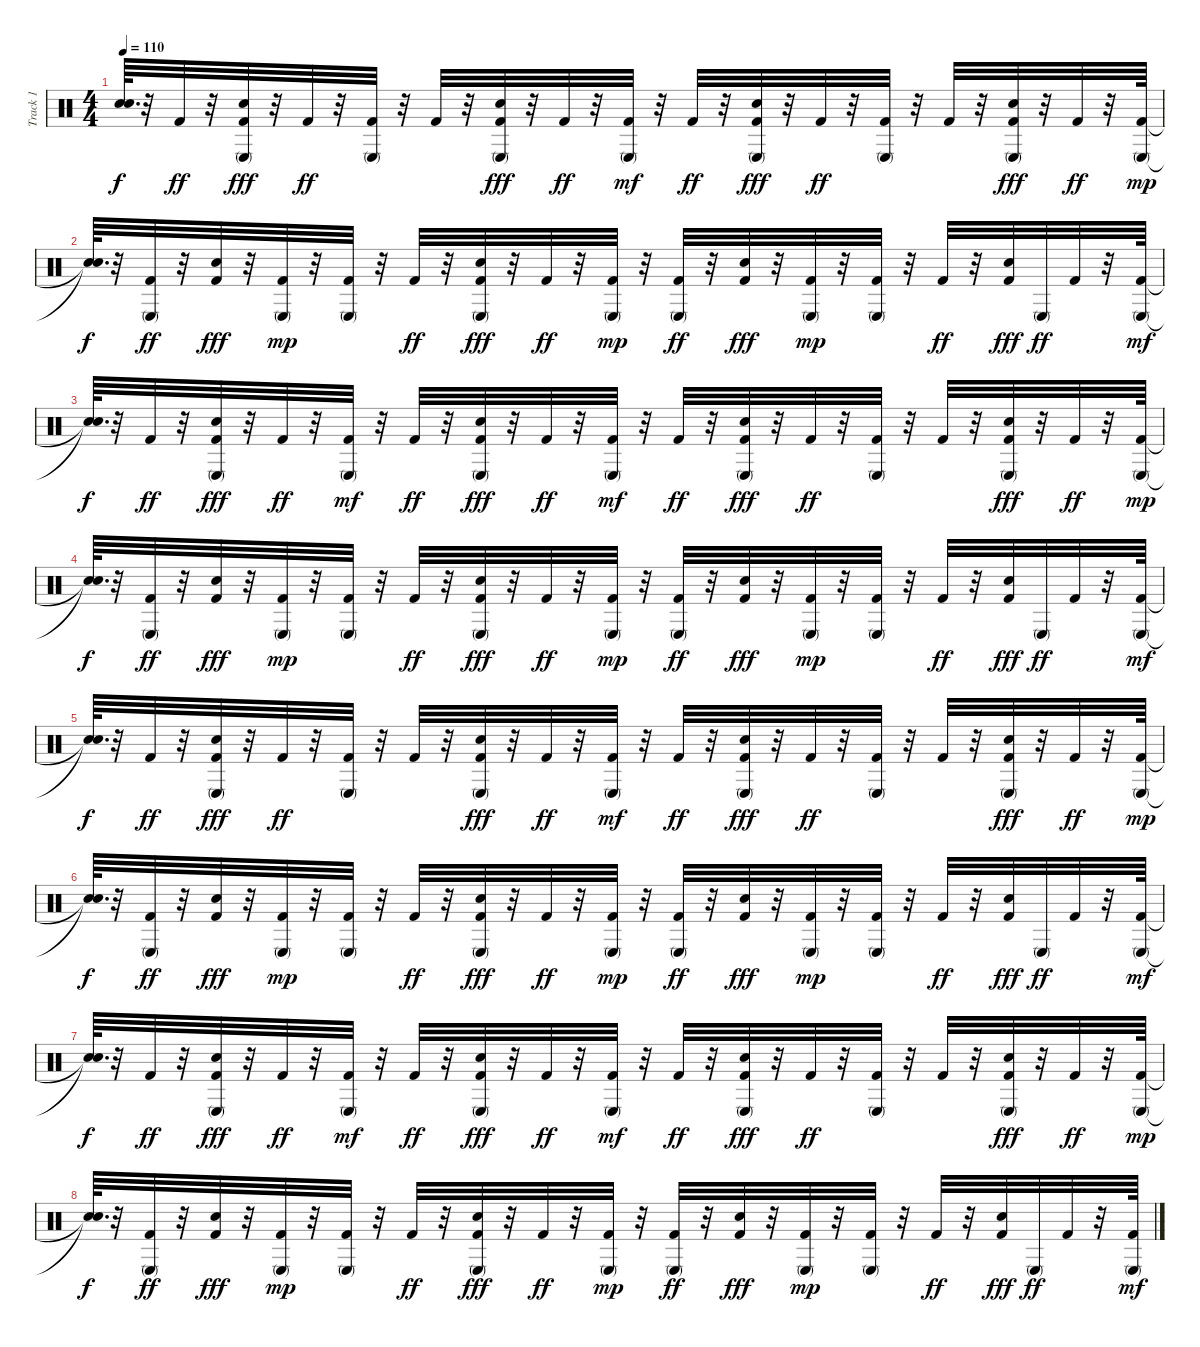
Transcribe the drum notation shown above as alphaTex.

\track ("Track 1" "Track 1") {mute instrument percussion}
\staff {score}
\articulation defaults
\ts (4 4)
\tempo 110
\clef neutral
\ks c
("Snare (hit)"{t} "Snare (hit)"{t}).64{d dy f} r.32 "Kick (hit) 2".32{dy ff} r.32 ("Kick (hit) 2" "Conga low (mute)" "Snare (hit) 2").32{dy fff} r.32 "Kick (hit) 2".32{dy ff} r.32 ("Conga low (mute)" "Kick (hit) 2").32 r.32 "Kick (hit) 2".32 r.32 ("Kick (hit) 2" "Conga low (mute)" "Snare (hit) 2").32{dy fff} r.32 "Kick (hit) 2".32{dy ff} r.32 ("Kick (hit) 2" "Conga low (mute)").32{dy mf} r.32 "Kick (hit) 2".32{dy ff} r.32 ("Kick (hit) 2" "Snare (hit) 2" "Conga low (mute)").32{dy fff} r.32 "Kick (hit) 2".32{dy ff} r.32 ("Conga low (mute)" "Kick (hit) 2").32 r.32 "Kick (hit) 2".32 r.32 ("Kick (hit) 2" "Conga low (mute)" "Snare (hit) 2").32{dy fff} r.32 "Kick (hit) 2".32{dy ff} r.32 ("Kick (hit) 2" "Conga low (mute)").64{dy mp} |
("Snare (hit)"{t} "Snare (hit)"{t}).64{d dy f} r.32 ("Conga low (mute)" "Kick (hit) 2").32{dy ff} r.32 ("Kick (hit) 2" "Snare (hit) 2").32{dy fff} r.32 ("Kick (hit) 2" "Conga low (mute)").32{dy mp} r.32 ("Kick (hit) 2" "Conga low (mute)").32 r.32 "Kick (hit) 2".32{dy ff} r.32 ("Kick (hit) 2" "Conga low (mute)" "Snare (hit) 2").32{dy fff} r.32 "Kick (hit) 2".32{dy ff} r.32 ("Kick (hit) 2" "Conga low (mute)").32{dy mp} r.32 ("Kick (hit) 2" "Conga low (mute)").32{dy ff} r.32 ("Kick (hit) 2" "Snare (hit) 2").32{dy fff} r.32 ("Kick (hit) 2" "Conga low (mute)").32{dy mp} r.32 ("Kick (hit) 2" "Conga low (mute)").32 r.32 "Kick (hit) 2".32{dy ff} r.32 ("Kick (hit) 2" "Snare (hit) 2").32{dy fff} "Conga low (mute)".32{dy ff} "Kick (hit) 2".32 r.32 ("Kick (hit) 2" "Conga low (mute)").64{dy mf} |
("Snare (hit)"{t} "Snare (hit)"{t}).64{d dy f} r.32 "Kick (hit) 2".32{dy ff} r.32 ("Kick (hit) 2" "Snare (hit) 2" "Conga low (mute)").32{dy fff} r.32 "Kick (hit) 2".32{dy ff} r.32 ("Kick (hit) 2" "Conga low (mute)").32{dy mf} r.32 "Kick (hit) 2".32{dy ff} r.32 ("Kick (hit) 2" "Snare (hit) 2" "Conga low (mute)").32{dy fff} r.32 "Kick (hit) 2".32{dy ff} r.32 ("Kick (hit) 2" "Conga low (mute)").32{dy mf} r.32 "Kick (hit) 2".32{dy ff} r.32 ("Snare (hit) 2" "Kick (hit) 2" "Conga low (mute)").32{dy fff} r.32 "Kick (hit) 2".32{dy ff} r.32 ("Conga low (mute)" "Kick (hit) 2").32 r.32 "Kick (hit) 2".32 r.32 ("Kick (hit) 2" "Snare (hit) 2" "Conga low (mute)").32{dy fff} r.32 "Kick (hit) 2".32{dy ff} r.32 ("Kick (hit) 2" "Conga low (mute)").64{dy mp} |
("Snare (hit)"{t} "Snare (hit)"{t}).64{d dy f} r.32 ("Conga low (mute)" "Kick (hit) 2").32{dy ff} r.32 ("Kick (hit) 2" "Snare (hit) 2").32{dy fff} r.32 ("Kick (hit) 2" "Conga low (mute)").32{dy mp} r.32 ("Kick (hit) 2" "Conga low (mute)").32 r.32 "Kick (hit) 2".32{dy ff} r.32 ("Kick (hit) 2" "Conga low (mute)" "Snare (hit) 2").32{dy fff} r.32 "Kick (hit) 2".32{dy ff} r.32 ("Kick (hit) 2" "Conga low (mute)").32{dy mp} r.32 ("Kick (hit) 2" "Conga low (mute)").32{dy ff} r.32 ("Kick (hit) 2" "Snare (hit) 2").32{dy fff} r.32 ("Kick (hit) 2" "Conga low (mute)").32{dy mp} r.32 ("Kick (hit) 2" "Conga low (mute)").32 r.32 "Kick (hit) 2".32{dy ff} r.32 ("Kick (hit) 2" "Snare (hit) 2").32{dy fff} "Conga low (mute)".32{dy ff} "Kick (hit) 2".32 r.32 ("Kick (hit) 2" "Conga low (mute)").64{dy mf} |
("Snare (hit)"{t} "Snare (hit)"{t}).64{d dy f} r.32 "Kick (hit) 2".32{dy ff} r.32 ("Kick (hit) 2" "Conga low (mute)" "Snare (hit) 2").32{dy fff} r.32 "Kick (hit) 2".32{dy ff} r.32 ("Conga low (mute)" "Kick (hit) 2").32 r.32 "Kick (hit) 2".32 r.32 ("Kick (hit) 2" "Conga low (mute)" "Snare (hit) 2").32{dy fff} r.32 "Kick (hit) 2".32{dy ff} r.32 ("Kick (hit) 2" "Conga low (mute)").32{dy mf} r.32 "Kick (hit) 2".32{dy ff} r.32 ("Kick (hit) 2" "Snare (hit) 2" "Conga low (mute)").32{dy fff} r.32 "Kick (hit) 2".32{dy ff} r.32 ("Conga low (mute)" "Kick (hit) 2").32 r.32 "Kick (hit) 2".32 r.32 ("Kick (hit) 2" "Conga low (mute)" "Snare (hit) 2").32{dy fff} r.32 "Kick (hit) 2".32{dy ff} r.32 ("Kick (hit) 2" "Conga low (mute)").64{dy mp} |
("Snare (hit)"{t} "Snare (hit)"{t}).64{d dy f} r.32 ("Conga low (mute)" "Kick (hit) 2").32{dy ff} r.32 ("Kick (hit) 2" "Snare (hit) 2").32{dy fff} r.32 ("Kick (hit) 2" "Conga low (mute)").32{dy mp} r.32 ("Kick (hit) 2" "Conga low (mute)").32 r.32 "Kick (hit) 2".32{dy ff} r.32 ("Kick (hit) 2" "Conga low (mute)" "Snare (hit) 2").32{dy fff} r.32 "Kick (hit) 2".32{dy ff} r.32 ("Kick (hit) 2" "Conga low (mute)").32{dy mp} r.32 ("Kick (hit) 2" "Conga low (mute)").32{dy ff} r.32 ("Kick (hit) 2" "Snare (hit) 2").32{dy fff} r.32 ("Kick (hit) 2" "Conga low (mute)").32{dy mp} r.32 ("Kick (hit) 2" "Conga low (mute)").32 r.32 "Kick (hit) 2".32{dy ff} r.32 ("Kick (hit) 2" "Snare (hit) 2").32{dy fff} "Conga low (mute)".32{dy ff} "Kick (hit) 2".32 r.32 ("Kick (hit) 2" "Conga low (mute)").64{dy mf} |
("Snare (hit)"{t} "Snare (hit)"{t}).64{d dy f} r.32 "Kick (hit) 2".32{dy ff} r.32 ("Kick (hit) 2" "Snare (hit) 2" "Conga low (mute)").32{dy fff} r.32 "Kick (hit) 2".32{dy ff} r.32 ("Kick (hit) 2" "Conga low (mute)").32{dy mf} r.32 "Kick (hit) 2".32{dy ff} r.32 ("Kick (hit) 2" "Snare (hit) 2" "Conga low (mute)").32{dy fff} r.32 "Kick (hit) 2".32{dy ff} r.32 ("Kick (hit) 2" "Conga low (mute)").32{dy mf} r.32 "Kick (hit) 2".32{dy ff} r.32 ("Snare (hit) 2" "Kick (hit) 2" "Conga low (mute)").32{dy fff} r.32 "Kick (hit) 2".32{dy ff} r.32 ("Conga low (mute)" "Kick (hit) 2").32 r.32 "Kick (hit) 2".32 r.32 ("Kick (hit) 2" "Snare (hit) 2" "Conga low (mute)").32{dy fff} r.32 "Kick (hit) 2".32{dy ff} r.32 ("Kick (hit) 2" "Conga low (mute)").64{dy mp} |
("Snare (hit)"{t} "Snare (hit)"{t}).64{d dy f} r.32 ("Conga low (mute)" "Kick (hit) 2").32{dy ff} r.32 ("Kick (hit) 2" "Snare (hit) 2").32{dy fff} r.32 ("Kick (hit) 2" "Conga low (mute)").32{dy mp} r.32 ("Kick (hit) 2" "Conga low (mute)").32 r.32 "Kick (hit) 2".32{dy ff} r.32 ("Kick (hit) 2" "Conga low (mute)" "Snare (hit) 2").32{dy fff} r.32 "Kick (hit) 2".32{dy ff} r.32 ("Kick (hit) 2" "Conga low (mute)").32{dy mp} r.32 ("Kick (hit) 2" "Conga low (mute)").32{dy ff} r.32 ("Kick (hit) 2" "Snare (hit) 2").32{dy fff} r.32 ("Kick (hit) 2" "Conga low (mute)").32{dy mp} r.32 ("Kick (hit) 2" "Conga low (mute)").32 r.32 "Kick (hit) 2".32{dy ff} r.32 ("Kick (hit) 2" "Snare (hit) 2").32{dy fff} "Conga low (mute)".32{dy ff} "Kick (hit) 2".32 r.32 ("Kick (hit) 2" "Conga low (mute)").64{dy mf}
